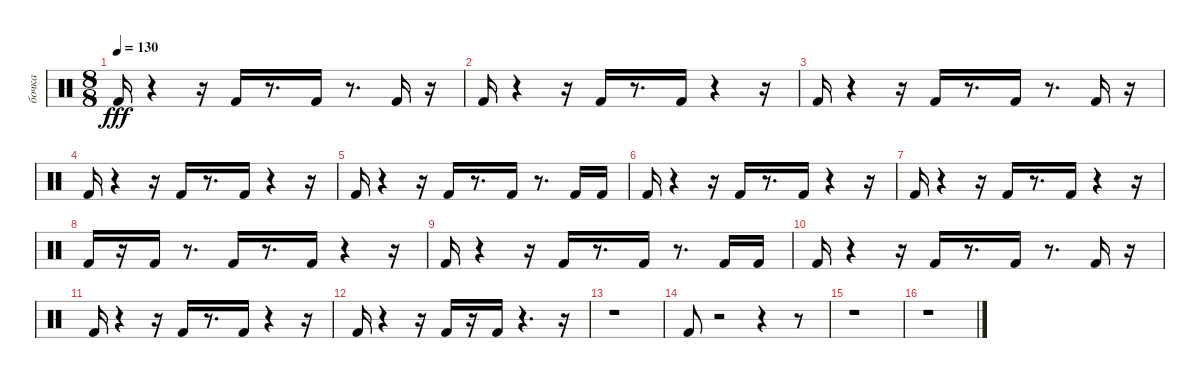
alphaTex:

\track ("бочка" "бочка") {instrument percussion}
\staff {score}
\articulation defaults
\ts (8 8)
\tempo 130
\clef neutral
\ks c "Kick (hit) 2".16{dy fff}
r.4 r.16 "Kick (hit) 2".16 r.8{d} "Kick (hit) 2".16 r.8{d} "Kick (hit) 2".16 r.16 |
"Kick (hit) 2".16 r.4 r.16 "Kick (hit) 2".16 r.8{d} "Kick (hit) 2".16 r.4 r.16 |
"Kick (hit) 2".16 r.4 r.16 "Kick (hit) 2".16 r.8{d} "Kick (hit) 2".16 r.8{d} "Kick (hit) 2".16 r.16 |
"Kick (hit) 2".16 r.4 r.16 "Kick (hit) 2".16 r.8{d} "Kick (hit) 2".16 r.4 r.16 |
"Kick (hit) 2".16 r.4 r.16 "Kick (hit) 2".16 r.8{d} "Kick (hit) 2".16 r.8{d} "Kick (hit) 2".16 "Kick (hit) 2".16 |
"Kick (hit) 2".16 r.4 r.16 "Kick (hit) 2".16 r.8{d} "Kick (hit) 2".16 r.4 r.16 |
"Kick (hit) 2".16 r.4 r.16 "Kick (hit) 2".16 r.8{d} "Kick (hit) 2".16 r.4 r.16 |
"Kick (hit) 2".16 r.16 "Kick (hit) 2".16 r.8{d} "Kick (hit) 2".16 r.8{d} "Kick (hit) 2".16 r.4 r.16 |
"Kick (hit) 2".16 r.4 r.16 "Kick (hit) 2".16 r.8{d} "Kick (hit) 2".16 r.8{d} "Kick (hit) 2".16 "Kick (hit) 2".16 |
"Kick (hit) 2".16 r.4 r.16 "Kick (hit) 2".16 r.8{d} "Kick (hit) 2".16 r.8{d} "Kick (hit) 2".16 r.16 |
"Kick (hit) 2".16 r.4 r.16 "Kick (hit) 2".16 r.8{d} "Kick (hit) 2".16 r.4 r.16 |
"Kick (hit) 2".16 r.4 r.16 "Kick (hit) 2".16 r.16 "Kick (hit) 2".16 r.4{d} r.16 |
r.1 |
"Kick (hit) 2".8 r.2 r.4 r.8 |
r.1 |
r.1
